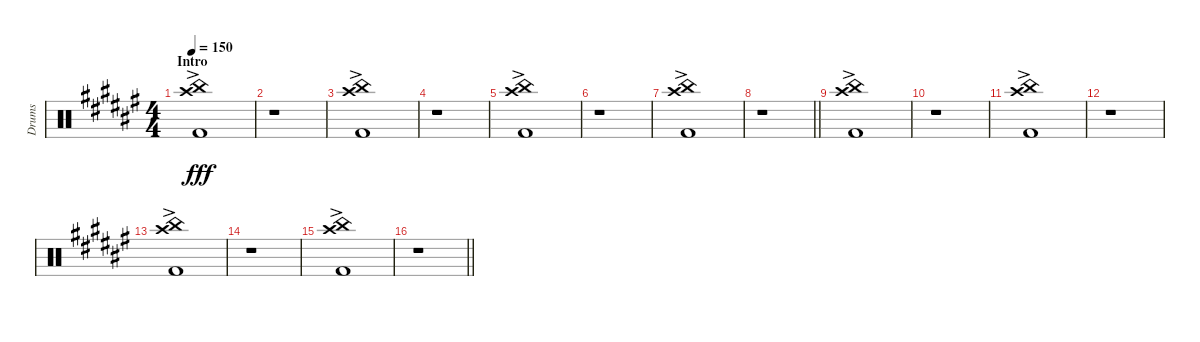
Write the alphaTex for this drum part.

\track ("Drums" "Drums") {instrument percussion}
\staff {score}
\articulation defaults
\ts (4 4)
\section ("" "Intro")
\tempo 150
\clef neutral
\ks d#minor
("Kick (hit) 2" "Crash high (hit)" "China (hit)"{ac}).1{dy fff} |
r.1 |
("Kick (hit) 2" "Crash high (hit)" "China (hit)"{ac}).1 |
r.1 |
("Kick (hit) 2" "Crash high (hit)" "China (hit)"{ac}).1 |
r.1 |
("Kick (hit) 2" "Crash high (hit)" "China (hit)"{ac}).1 |
\barLineRight lightlight
r.1 |
("Kick (hit) 2" "Crash high (hit)" "China (hit)"{ac}).1 |
r.1 |
("Kick (hit) 2" "Crash high (hit)" "China (hit)"{ac}).1 |
r.1 |
("Kick (hit) 2" "Crash high (hit)" "China (hit)"{ac}).1 |
r.1 |
("Kick (hit) 2" "Crash high (hit)" "China (hit)"{ac}).1 |
\barLineRight lightlight
r.1
